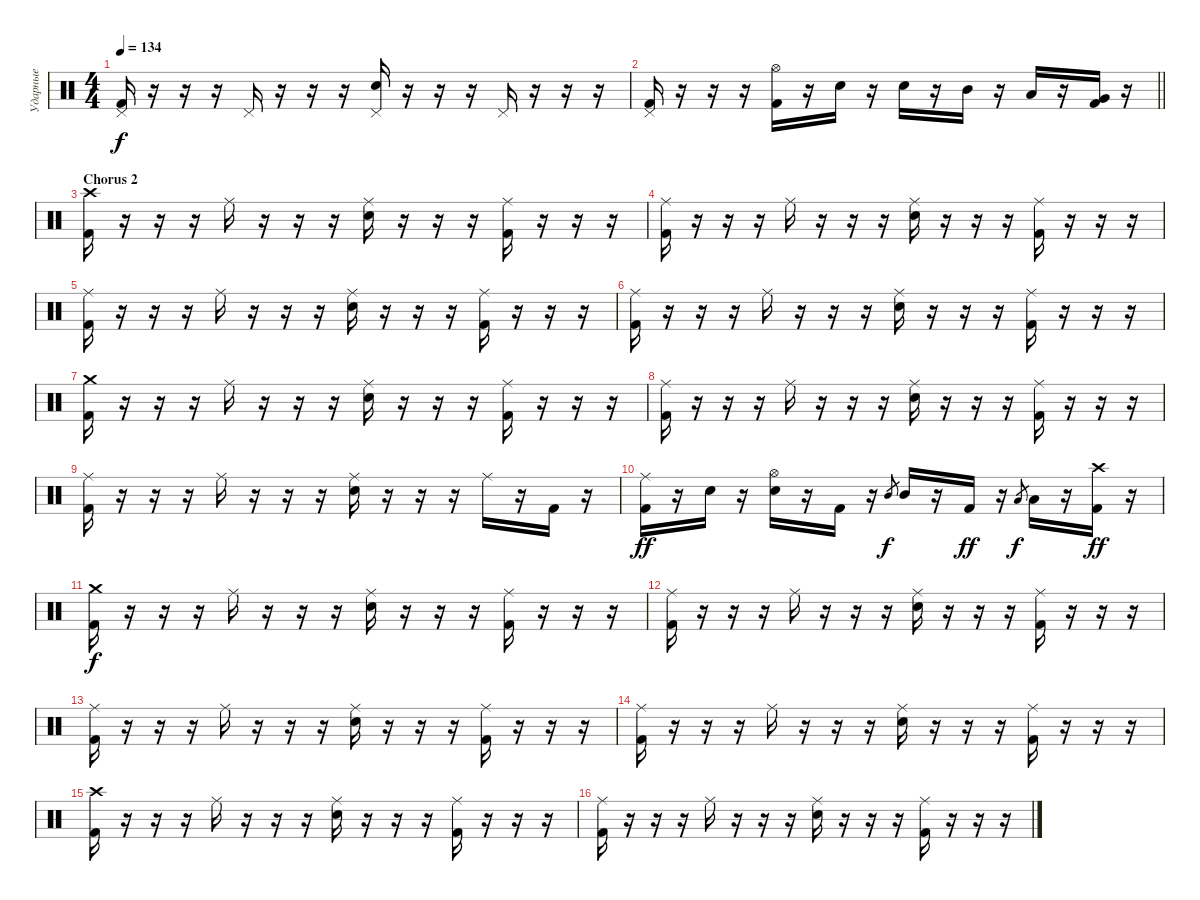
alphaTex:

\track ("Ударные" "Ударные") {instrument percussion}
\staff {score}
\articulation defaults
\ts (4 4)
\tempo 134
\clef neutral
\ks c
("Pedal Hi-Hat (hit)" "Kick (hit) 2").16{dy f} r.16 r.16 r.16 "Pedal Hi-Hat (hit)".16 r.16 r.16 r.16 ("Pedal Hi-Hat (hit)" "Snare (hit) 2").16 r.16 r.16 r.16 "Pedal Hi-Hat (hit)".16 r.16 r.16 r.16 |
\barLineRight lightlight
("Pedal Hi-Hat (hit)" "Kick (hit) 2").16 r.16 r.16 r.16 ("Hi-Hat (open)" "Kick (hit) 2").16 r.16 "Snare (hit) 2".16 r.16 "Snare (hit) 2".16 r.16 "Mid Tom (hit)".16 r.16 "Low Tom (hit)".16 r.16 ("Very Low Tom (hit)" "Kick (hit) 2").16 r.16 |
\section ("" "Chorus 2")
("Crash high (hit)" "Kick (hit) 2").16 r.16 r.16 r.16 "Ride (middle)".16 r.16 r.16 r.16 ("Ride (middle)" "Snare (hit) 2").16 r.16 r.16 r.16 ("Ride (middle)" "Kick (hit) 2").16 r.16 r.16 r.16 |
("Ride (middle)" "Kick (hit) 2").16 r.16 r.16 r.16 "Ride (middle)".16 r.16 r.16 r.16 ("Ride (middle)" "Snare (hit) 2").16 r.16 r.16 r.16 ("Ride (middle)" "Kick (hit) 2").16 r.16 r.16 r.16 |
("Ride (middle)" "Kick (hit) 2").16 r.16 r.16 r.16 "Ride (middle)".16 r.16 r.16 r.16 ("Ride (middle)" "Snare (hit) 2").16 r.16 r.16 r.16 ("Ride (middle)" "Kick (hit) 2").16 r.16 r.16 r.16 |
("Ride (middle)" "Kick (hit) 2").16 r.16 r.16 r.16 "Ride (middle)".16 r.16 r.16 r.16 ("Ride (middle)" "Snare (hit) 2").16 r.16 r.16 r.16 ("Ride (middle)" "Kick (hit) 2").16 r.16 r.16 r.16 |
("Crash medium (hit)" "Kick (hit) 2").16 r.16 r.16 r.16 "Ride (middle)".16 r.16 r.16 r.16 ("Ride (middle)" "Snare (hit) 2").16 r.16 r.16 r.16 ("Ride (middle)" "Kick (hit) 2").16 r.16 r.16 r.16 |
("Ride (middle)" "Kick (hit) 2").16 r.16 r.16 r.16 "Ride (middle)".16 r.16 r.16 r.16 ("Ride (middle)" "Snare (hit) 2").16 r.16 r.16 r.16 ("Ride (middle)" "Kick (hit) 2").16 r.16 r.16 r.16 |
("Ride (middle)" "Kick (hit) 2").16 r.16 r.16 r.16 "Ride (middle)".16 r.16 r.16 r.16 ("Ride (middle)" "Snare (hit) 2").16 r.16 r.16 r.16 "Ride (middle)".16 r.16 "Kick (hit) 2".16 r.16 |
("Ride (middle)" "Kick (hit) 2").16{dy ff} r.16 "Snare (hit) 2".16 r.16 ("Hi-Hat (open)" "Snare (hit) 2").16 r.16 "Kick (hit) 2".16 r.16 "Mid Tom (hit)".8{gr dy f} "Mid Tom (hit)".16 r.16 "Kick (hit) 2".16{dy ff} r.16 "Low Tom (hit)".8{gr dy f} "Low Tom (hit)".16 r.16 ("Crash high (hit)" "Kick (hit) 2").16{dy ff} r.16 |
("Crash medium (hit)" "Kick (hit) 2").16{dy f} r.16 r.16 r.16 "Ride (middle)".16 r.16 r.16 r.16 ("Ride (middle)" "Snare (hit) 2").16 r.16 r.16 r.16 ("Ride (middle)" "Kick (hit) 2").16 r.16 r.16 r.16 |
("Ride (middle)" "Kick (hit) 2").16 r.16 r.16 r.16 "Ride (middle)".16 r.16 r.16 r.16 ("Ride (middle)" "Snare (hit) 2").16 r.16 r.16 r.16 ("Ride (middle)" "Kick (hit) 2").16 r.16 r.16 r.16 |
("Ride (middle)" "Kick (hit) 2").16 r.16 r.16 r.16 "Ride (middle)".16 r.16 r.16 r.16 ("Ride (middle)" "Snare (hit) 2").16 r.16 r.16 r.16 ("Ride (middle)" "Kick (hit) 2").16 r.16 r.16 r.16 |
("Ride (middle)" "Kick (hit) 2").16 r.16 r.16 r.16 "Ride (middle)".16 r.16 r.16 r.16 ("Ride (middle)" "Snare (hit) 2").16 r.16 r.16 r.16 ("Ride (middle)" "Kick (hit) 2").16 r.16 r.16 r.16 |
("Crash high (hit)" "Kick (hit) 2").16 r.16 r.16 r.16 "Ride (middle)".16 r.16 r.16 r.16 ("Ride (middle)" "Snare (hit) 2").16 r.16 r.16 r.16 ("Ride (middle)" "Kick (hit) 2").16 r.16 r.16 r.16 |
("Ride (middle)" "Kick (hit) 2").16 r.16 r.16 r.16 "Ride (middle)".16 r.16 r.16 r.16 ("Ride (middle)" "Snare (hit) 2").16 r.16 r.16 r.16 ("Ride (middle)" "Kick (hit) 2").16 r.16 r.16 r.16
